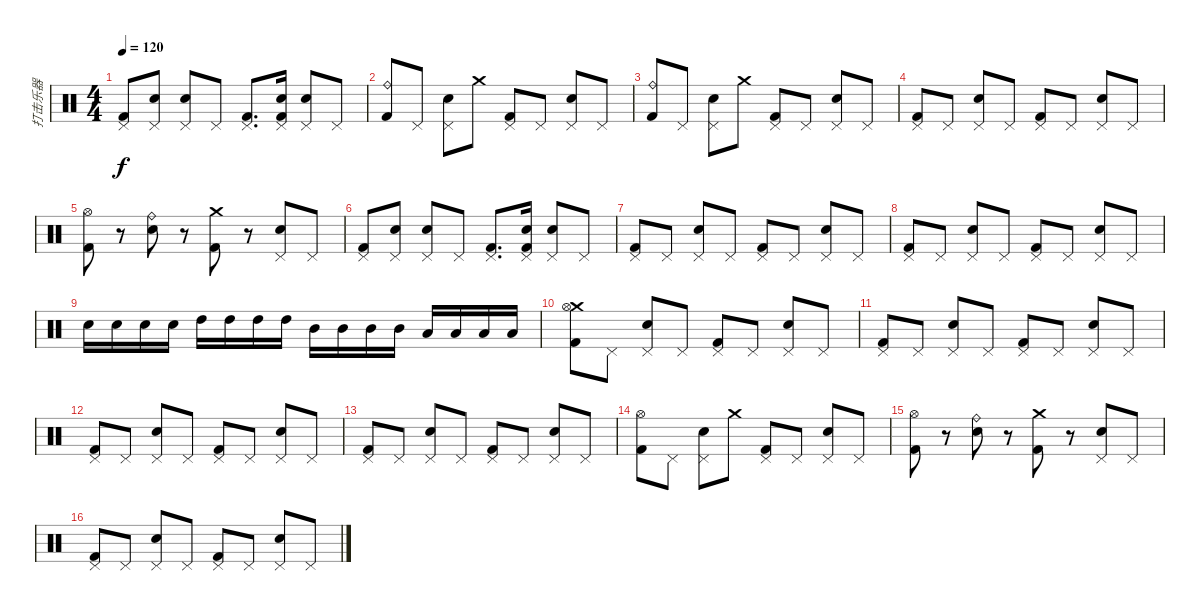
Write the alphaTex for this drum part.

\track ("打击乐器" "打击乐器") {instrument percussion}
\staff {score}
\articulation defaults
\ts (4 4)
\tempo 120
\clef neutral
\ks c
("Pedal Hi-Hat (hit)" "Kick (hit) 2").8{dy f} ("Pedal Hi-Hat (hit)" "Electric Snare (hit)").8 ("Pedal Hi-Hat (hit)" "Electric Snare (hit)").8 "Pedal Hi-Hat (hit)".8 ("Pedal Hi-Hat (hit)" "Kick (hit) 2").8{d} ("Pedal Hi-Hat (hit)" "Electric Snare (hit)" "Kick (hit) 2").16 ("Pedal Hi-Hat (hit)" "Electric Snare (hit)").8 "Pedal Hi-Hat (hit)".8 |
("Ride (bell)" "Kick (hit) 2").8 "Pedal Hi-Hat (hit)".8 ("Pedal Hi-Hat (hit)" "Electric Snare (hit)").8 "Crash medium (hit)".8 ("Pedal Hi-Hat (hit)" "Kick (hit) 2").8 "Pedal Hi-Hat (hit)".8 ("Pedal Hi-Hat (hit)" "Electric Snare (hit)").8 "Pedal Hi-Hat (hit)".8 |
("Ride (bell)" "Kick (hit) 2").8 "Pedal Hi-Hat (hit)".8 ("Pedal Hi-Hat (hit)" "Electric Snare (hit)").8 "Crash medium (hit)".8 ("Pedal Hi-Hat (hit)" "Kick (hit) 2").8 "Pedal Hi-Hat (hit)".8 ("Pedal Hi-Hat (hit)" "Electric Snare (hit)").8 "Pedal Hi-Hat (hit)".8 |
("Pedal Hi-Hat (hit)" "Kick (hit) 2").8 "Pedal Hi-Hat (hit)".8 ("Pedal Hi-Hat (hit)" "Electric Snare (hit)").8 "Pedal Hi-Hat (hit)".8 ("Pedal Hi-Hat (hit)" "Kick (hit) 2").8 "Pedal Hi-Hat (hit)".8 ("Pedal Hi-Hat (hit)" "Electric Snare (hit)").8 "Pedal Hi-Hat (hit)".8 |
("Hi-Hat (open)" "Kick (hit) 2").8 r.8 ("Ride (bell)" "Electric Snare (hit)").8 r.8 ("Crash medium (hit)" "Kick (hit) 2").8 r.8 ("Pedal Hi-Hat (hit)" "Electric Snare (hit)").8 "Pedal Hi-Hat (hit)".8 |
("Pedal Hi-Hat (hit)" "Kick (hit) 2").8 ("Pedal Hi-Hat (hit)" "Electric Snare (hit)").8 ("Pedal Hi-Hat (hit)" "Electric Snare (hit)").8 "Pedal Hi-Hat (hit)".8 ("Pedal Hi-Hat (hit)" "Kick (hit) 2").8{d} ("Pedal Hi-Hat (hit)" "Electric Snare (hit)" "Kick (hit) 2").16 ("Pedal Hi-Hat (hit)" "Electric Snare (hit)").8 "Pedal Hi-Hat (hit)".8 |
("Pedal Hi-Hat (hit)" "Kick (hit) 2").8 "Pedal Hi-Hat (hit)".8 ("Pedal Hi-Hat (hit)" "Electric Snare (hit)").8 "Pedal Hi-Hat (hit)".8 ("Pedal Hi-Hat (hit)" "Kick (hit) 2").8 "Pedal Hi-Hat (hit)".8 ("Pedal Hi-Hat (hit)" "Electric Snare (hit)").8 "Pedal Hi-Hat (hit)".8 |
("Pedal Hi-Hat (hit)" "Kick (hit) 2").8 "Pedal Hi-Hat (hit)".8 ("Pedal Hi-Hat (hit)" "Electric Snare (hit)").8 "Pedal Hi-Hat (hit)".8 ("Pedal Hi-Hat (hit)" "Kick (hit) 2").8 "Pedal Hi-Hat (hit)".8 ("Pedal Hi-Hat (hit)" "Electric Snare (hit)").8 "Pedal Hi-Hat (hit)".8 |
"Electric Snare (hit)".16 "Electric Snare (hit)".16 "Electric Snare (hit)".16 "Electric Snare (hit)".16 "High Tom (hit)".16 "High Tom (hit)".16 "High Tom (hit)".16 "High Tom (hit)".16 "Mid Tom (hit)".16 "Mid Tom (hit)".16 "Mid Tom (hit)".16 "Mid Tom (hit)".16 "Low Tom (hit)".16 "Low Tom (hit)".16 "Low Tom (hit)".16 "Low Tom (hit)".16 |
("Crash medium (hit)" "Hi-Hat (open)" "Kick (hit) 2").8 "Pedal Hi-Hat (hit)".8 ("Pedal Hi-Hat (hit)" "Electric Snare (hit)").8 "Pedal Hi-Hat (hit)".8 ("Pedal Hi-Hat (hit)" "Kick (hit) 2").8 "Pedal Hi-Hat (hit)".8 ("Pedal Hi-Hat (hit)" "Electric Snare (hit)").8 "Pedal Hi-Hat (hit)".8 |
("Pedal Hi-Hat (hit)" "Kick (hit) 2").8 "Pedal Hi-Hat (hit)".8 ("Pedal Hi-Hat (hit)" "Electric Snare (hit)").8 "Pedal Hi-Hat (hit)".8 ("Pedal Hi-Hat (hit)" "Kick (hit) 2").8 "Pedal Hi-Hat (hit)".8 ("Pedal Hi-Hat (hit)" "Electric Snare (hit)").8 "Pedal Hi-Hat (hit)".8 |
("Pedal Hi-Hat (hit)" "Kick (hit) 2").8 "Pedal Hi-Hat (hit)".8 ("Pedal Hi-Hat (hit)" "Electric Snare (hit)").8 "Pedal Hi-Hat (hit)".8 ("Pedal Hi-Hat (hit)" "Kick (hit) 2").8 "Pedal Hi-Hat (hit)".8 ("Pedal Hi-Hat (hit)" "Electric Snare (hit)").8 "Pedal Hi-Hat (hit)".8 |
("Pedal Hi-Hat (hit)" "Kick (hit) 2").8 "Pedal Hi-Hat (hit)".8 ("Pedal Hi-Hat (hit)" "Electric Snare (hit)").8 "Pedal Hi-Hat (hit)".8 ("Pedal Hi-Hat (hit)" "Kick (hit) 2").8 "Pedal Hi-Hat (hit)".8 ("Pedal Hi-Hat (hit)" "Electric Snare (hit)").8 "Pedal Hi-Hat (hit)".8 |
("Hi-Hat (open)" "Kick (hit) 2").8 "Pedal Hi-Hat (hit)".8 ("Pedal Hi-Hat (hit)" "Electric Snare (hit)").8 "Crash medium (hit)".8 ("Pedal Hi-Hat (hit)" "Kick (hit) 2").8 "Pedal Hi-Hat (hit)".8 ("Pedal Hi-Hat (hit)" "Electric Snare (hit)").8 "Pedal Hi-Hat (hit)".8 |
("Hi-Hat (open)" "Kick (hit) 2").8 r.8 ("Ride (bell)" "Electric Snare (hit)").8 r.8 ("Crash medium (hit)" "Kick (hit) 2").8 r.8 ("Pedal Hi-Hat (hit)" "Electric Snare (hit)").8 "Pedal Hi-Hat (hit)".8 |
("Pedal Hi-Hat (hit)" "Kick (hit) 2").8 "Pedal Hi-Hat (hit)".8 ("Pedal Hi-Hat (hit)" "Electric Snare (hit)").8 "Pedal Hi-Hat (hit)".8 ("Pedal Hi-Hat (hit)" "Kick (hit) 2").8 "Pedal Hi-Hat (hit)".8 ("Pedal Hi-Hat (hit)" "Electric Snare (hit)").8 "Pedal Hi-Hat (hit)".8
